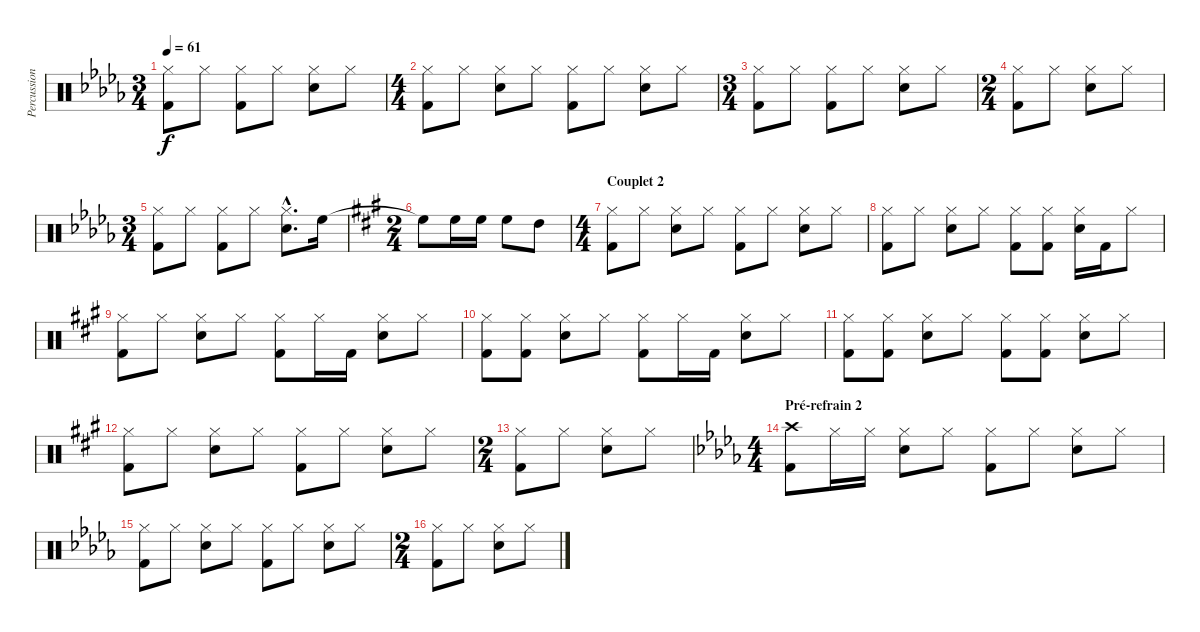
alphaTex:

\track ("Percussions" "Percussion") {instrument percussion}
\staff {score}
\articulation defaults
\ts (3 4)
\tempo 61
\clef neutral
\ks db
("Hi-Hat (closed)" "Kick (hit) 2").8{dy f} "Hi-Hat (closed)".8 ("Hi-Hat (closed)" "Kick (hit) 2").8 "Hi-Hat (closed)".8 ("Hi-Hat (closed)" "Electric Snare (hit)").8 "Hi-Hat (closed)".8 |
\ts (4 4)
("Hi-Hat (closed)" "Kick (hit) 2").8 "Hi-Hat (closed)".8 ("Hi-Hat (closed)" "Electric Snare (hit)").8 "Hi-Hat (closed)".8 ("Hi-Hat (closed)" "Kick (hit) 2").8 "Hi-Hat (closed)".8 ("Hi-Hat (closed)" "Electric Snare (hit)").8 "Hi-Hat (closed)".8 |
\ts (3 4)
("Hi-Hat (closed)" "Kick (hit) 2").8 "Hi-Hat (closed)".8 ("Hi-Hat (closed)" "Kick (hit) 2").8 "Hi-Hat (closed)".8 ("Hi-Hat (closed)" "Electric Snare (hit)").8 "Hi-Hat (closed)".8 |
\ts (2 4)
("Hi-Hat (closed)" "Kick (hit) 2").8 "Hi-Hat (closed)".8 ("Hi-Hat (closed)" "Electric Snare (hit)").8 "Hi-Hat (closed)".8 |
\ts (3 4)
("Hi-Hat (closed)" "Kick (hit) 2").8 "Hi-Hat (closed)".8 ("Hi-Hat (closed)" "Kick (hit) 2").8 "Hi-Hat (closed)".8 ("Hi-Hat (closed)"{hac} "Electric Snare (hit)"{hac}).8{d} "High Floor Tom (hit)".16 |
\ts (2 4)
\ks a "High Floor Tom (hit)"{t}.8 "High Floor Tom (hit)".16 "High Floor Tom (hit)".16 "High Floor Tom (hit)".8 "High Tom (hit)".8
|
\ts (4 4)
\section ("" "Couplet 2")
("Hi-Hat (closed)" "Kick (hit) 2").8 "Hi-Hat (closed)".8 ("Hi-Hat (closed)" "Electric Snare (hit)").8 "Hi-Hat (closed)".8 ("Hi-Hat (closed)" "Kick (hit) 2").8 "Hi-Hat (closed)".8 ("Hi-Hat (closed)" "Electric Snare (hit)").8 "Hi-Hat (closed)".8 |
("Hi-Hat (closed)" "Kick (hit) 2").8 "Hi-Hat (closed)".8 ("Hi-Hat (closed)" "Electric Snare (hit)").8 "Hi-Hat (closed)".8 ("Hi-Hat (closed)" "Kick (hit) 2").8 ("Hi-Hat (closed)" "Kick (hit) 2").8 ("Hi-Hat (closed)" "Electric Snare (hit)").16 "Kick (hit) 2".16 "Hi-Hat (closed)".8 |
("Hi-Hat (closed)" "Kick (hit) 2").8 "Hi-Hat (closed)".8 ("Hi-Hat (closed)" "Electric Snare (hit)").8 "Hi-Hat (closed)".8 ("Hi-Hat (closed)" "Kick (hit) 2").8 "Hi-Hat (closed)".16 "Kick (hit) 2".16 ("Hi-Hat (closed)" "Electric Snare (hit)").8 "Hi-Hat (closed)".8 |
("Hi-Hat (closed)" "Kick (hit) 2").8 ("Hi-Hat (closed)" "Kick (hit) 2").8 ("Hi-Hat (closed)" "Electric Snare (hit)").8 "Hi-Hat (closed)".8 ("Hi-Hat (closed)" "Kick (hit) 2").8 "Hi-Hat (closed)".16 "Kick (hit) 2".16 ("Hi-Hat (closed)" "Electric Snare (hit)").8 "Hi-Hat (closed)".8 |
("Hi-Hat (closed)" "Kick (hit) 2").8 ("Hi-Hat (closed)" "Kick (hit) 2").8 ("Hi-Hat (closed)" "Electric Snare (hit)").8 "Hi-Hat (closed)".8 ("Hi-Hat (closed)" "Kick (hit) 2").8 ("Hi-Hat (closed)" "Kick (hit) 2").8 ("Hi-Hat (closed)" "Electric Snare (hit)").8 "Hi-Hat (closed)".8 |
("Hi-Hat (closed)" "Kick (hit) 2").8 "Hi-Hat (closed)".8 ("Hi-Hat (closed)" "Electric Snare (hit)").8 "Hi-Hat (closed)".8 ("Hi-Hat (closed)" "Kick (hit) 2").8 "Hi-Hat (closed)".8 ("Hi-Hat (closed)" "Electric Snare (hit)").8 "Hi-Hat (closed)".8 |
\ts (2 4)
("Hi-Hat (closed)" "Kick (hit) 2").8 "Hi-Hat (closed)".8 ("Hi-Hat (closed)" "Electric Snare (hit)").8 "Hi-Hat (closed)".8 |
\ts (4 4)
\section ("" "Pré-refrain 2")
\ks db
("Crash high (hit)" "Kick (hit) 2").8 "Hi-Hat (closed)".16 "Hi-Hat (closed)".16 ("Hi-Hat (closed)" "Electric Snare (hit)").8 "Hi-Hat (closed)".8 ("Hi-Hat (closed)" "Kick (hit) 2").8 "Hi-Hat (closed)".8 ("Hi-Hat (closed)" "Electric Snare (hit)").8 "Hi-Hat (closed)".8 |
("Hi-Hat (closed)" "Kick (hit) 2").8 "Hi-Hat (closed)".8 ("Hi-Hat (closed)" "Electric Snare (hit)").8 "Hi-Hat (closed)".8 ("Hi-Hat (closed)" "Kick (hit) 2").8 "Hi-Hat (closed)".8 ("Hi-Hat (closed)" "Electric Snare (hit)").8 "Hi-Hat (closed)".8 |
\ts (2 4)
("Hi-Hat (closed)" "Kick (hit) 2").8 "Hi-Hat (closed)".8 ("Hi-Hat (closed)" "Electric Snare (hit)").8 "Hi-Hat (closed)".8
